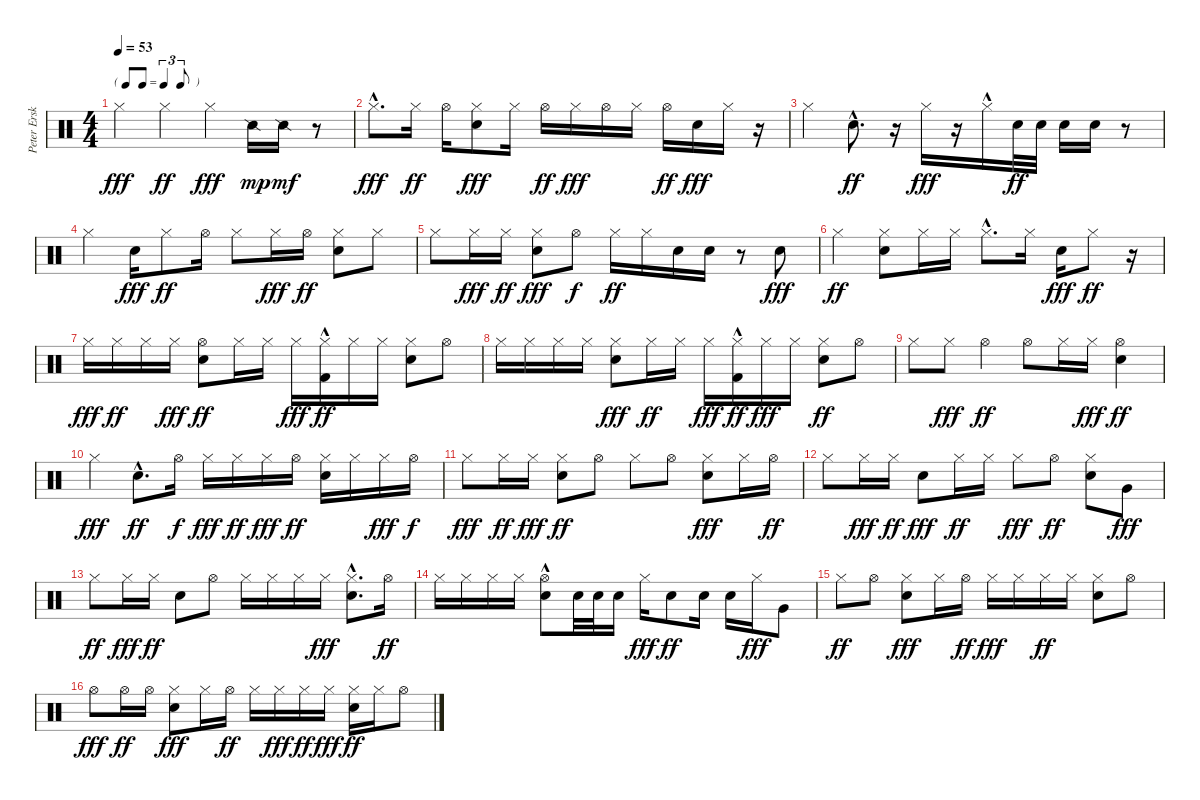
\track ("Peter Erskine" "Peter Ersk") {instrument percussion}
\staff {score}
\articulation defaults
\ts (4 4)
\tf triplet8th
\tempo 53
\clef neutral
\ks c "Hi-Hat (closed)".4{dy fff} "Hi-Hat (closed)".4{dy ff} "Hi-Hat (closed)".4{dy fff} "Snare (side stick) 2".16{dy mp} "Snare (side stick) 2".16{dy mf}
r.8 |
"Hi-Hat (closed)"{hac}.8{d dy fff} "Hi-Hat (closed)".16{dy ff} "Hi-Hat (open)".16 ("Snare (hit) 2" "Hi-Hat (closed)").8{dy fff} "Hi-Hat (closed)".16 "Hi-Hat (open)".16{dy ff} "Hi-Hat (closed)".16{dy fff} "Hi-Hat (open)".16 "Hi-Hat (closed)".16 "Hi-Hat (open)".16{dy ff} "Snare (hit) 2".16{dy fff} "Hi-Hat (closed)".16 r.16 |
"Hi-Hat (closed)".4 "Snare (hit) 2"{hac}.8{d dy ff} r.16 "Hi-Hat (closed)".16{dy fff} r.16 "Hi-Hat (closed)"{hac}.16 "Snare (hit) 2".32{dy ff} "Snare (hit) 2".32 "Snare (hit) 2".16 "Snare (hit) 2".16 r.8 |
"Hi-Hat (closed)".4 "Snare (hit) 2".16{dy fff} "Hi-Hat (closed)".8{dy ff} "Hi-Hat (open)".16 "Hi-Hat (closed)".8 "Hi-Hat (closed)".16{dy fff} "Hi-Hat (open)".16{dy ff} ("Snare (hit) 2" "Hi-Hat (closed)").8 "Hi-Hat (closed)".8 |
"Hi-Hat (closed)".8 "Hi-Hat (closed)".16{dy fff} "Hi-Hat (closed)".16{dy ff} ("Snare (hit) 2" "Hi-Hat (closed)").8{dy fff} "Hi-Hat (open)".8{dy f} "Hi-Hat (closed)".16{dy ff} "Hi-Hat (closed)".16 "Snare (hit) 2".16 "Snare (hit) 2".16 r.8 "Snare (hit) 2".8{dy fff} |
"Hi-Hat (closed)".4{dy ff} ("Snare (hit) 2" "Hi-Hat (closed)").8 "Hi-Hat (closed)".16 "Hi-Hat (closed)".16 "Hi-Hat (closed)"{hac}.8{d} "Hi-Hat (closed)".16 "Snare (hit) 2".16{dy fff} "Hi-Hat (closed)".8{dy ff} r.16 |
"Hi-Hat (closed)".16{dy fff} "Hi-Hat (closed)".16{dy ff} "Hi-Hat (closed)".16 "Hi-Hat (closed)".16{dy fff} ("Snare (hit) 2" "Hi-Hat (open)").8{dy ff} "Hi-Hat (closed)".16 "Hi-Hat (closed)".16 "Hi-Hat (closed)".16{dy fff} ("Kick (hit) 2"{hac} "Hi-Hat (closed)").16{dy ff} "Hi-Hat (closed)".16 "Hi-Hat (closed)".16 ("Snare (hit) 2" "Hi-Hat (closed)").8 "Hi-Hat (open)".8 |
"Hi-Hat (closed)".16 "Hi-Hat (closed)".16 "Hi-Hat (closed)".16 "Hi-Hat (closed)".16 ("Snare (hit) 2" "Hi-Hat (closed)").8{dy fff} "Hi-Hat (closed)".16{dy ff} "Hi-Hat (closed)".16 "Hi-Hat (closed)".16{dy fff} ("Kick (hit) 2"{hac} "Hi-Hat (closed)").16{dy ff} "Hi-Hat (closed)".16{dy fff} "Hi-Hat (closed)".16 ("Snare (hit) 2" "Hi-Hat (closed)").8{dy ff} "Hi-Hat (open)".8 |
"Hi-Hat (closed)".8 "Hi-Hat (closed)".8{dy fff} "Hi-Hat (open)".4{dy ff} "Hi-Hat (open)".8 "Hi-Hat (closed)".16 "Hi-Hat (closed)".16{dy fff} ("Snare (hit) 2" "Hi-Hat (open)").4{dy ff} |
"Hi-Hat (closed)".4{dy fff} "Snare (hit) 2"{hac}.8{d dy ff} "Hi-Hat (open)".16{dy f} "Hi-Hat (closed)".16{dy fff} "Hi-Hat (closed)".16{dy ff} "Hi-Hat (closed)".16{dy fff} "Hi-Hat (open)".16{dy ff} ("Snare (hit) 2" "Hi-Hat (closed)").16 "Hi-Hat (closed)".16 "Hi-Hat (closed)".16{dy fff} "Hi-Hat (open)".16{dy f} |
"Hi-Hat (closed)".8{dy fff} "Hi-Hat (closed)".16{dy ff} "Hi-Hat (closed)".16{dy fff} ("Snare (hit) 2" "Hi-Hat (closed)").8{dy ff} "Hi-Hat (open)".8 "Hi-Hat (closed)".8 "Hi-Hat (open)".8 ("Snare (hit) 2" "Hi-Hat (closed)").8{dy fff} "Hi-Hat (closed)".16 "Hi-Hat (open)".16{dy ff} |
"Hi-Hat (closed)".8 "Hi-Hat (closed)".16{dy fff} "Hi-Hat (closed)".16{dy ff} "Snare (hit) 2".8{dy fff} "Hi-Hat (closed)".16{dy ff} "Hi-Hat (closed)".16 "Hi-Hat (closed)".8{dy fff} "Hi-Hat (open)".8{dy ff} ("Snare (hit) 2" "Hi-Hat (closed)").8 "Very Low Tom (hit)".8{dy fff balance 16} |
"Hi-Hat (closed)".8{dy ff balance 8} "Hi-Hat (closed)".16{dy fff} "Hi-Hat (closed)".16{dy ff} "Snare (hit) 2".8 "Hi-Hat (open)".8 "Hi-Hat (closed)".16 "Hi-Hat (closed)".16 "Hi-Hat (closed)".16 "Hi-Hat (closed)".16{dy fff} ("Snare (hit) 2"{hac} "Hi-Hat (closed)"{hac}).8{d} "Hi-Hat (open)".16{dy ff} |
"Hi-Hat (closed)".16 "Hi-Hat (closed)".16 "Hi-Hat (closed)".16 "Hi-Hat (closed)".16 ("Snare (hit) 2" "Hi-Hat (open)"{hac}).8 "Snare (hit) 2".32 "Snare (hit) 2".32 "Snare (hit) 2".16 "Hi-Hat (closed)".16{dy fff} "Snare (hit) 2".8{dy ff} "Snare (hit) 2".16 "Snare (hit) 2".16 "Hi-Hat (closed)".16{dy fff} "Very Low Tom (hit)".8{balance 16} |
"Hi-Hat (closed)".8{dy ff balance 8} "Hi-Hat (open)".8 ("Snare (hit) 2" "Hi-Hat (closed)").8{dy fff} "Hi-Hat (closed)".16 "Hi-Hat (open)".16{dy ff} "Hi-Hat (closed)".16{dy fff} "Hi-Hat (closed)".16 "Hi-Hat (closed)".16{dy ff} "Hi-Hat (closed)".16 ("Snare (hit) 2" "Hi-Hat (closed)").8 "Hi-Hat (open)".8 |
"Hi-Hat (open)".8{dy fff} "Hi-Hat (open)".16{dy ff} "Hi-Hat (open)".16 ("Snare (hit) 2" "Hi-Hat (closed)").8{dy fff} "Hi-Hat (closed)".16 "Hi-Hat (open)".16{dy ff} "Hi-Hat (closed)".16 "Hi-Hat (closed)".16{dy fff} "Hi-Hat (closed)".16{dy ff} "Hi-Hat (closed)".16{dy fff} ("Snare (hit) 2" "Hi-Hat (closed)").16{dy ff} "Hi-Hat (closed)".16 "Hi-Hat (open)".8
